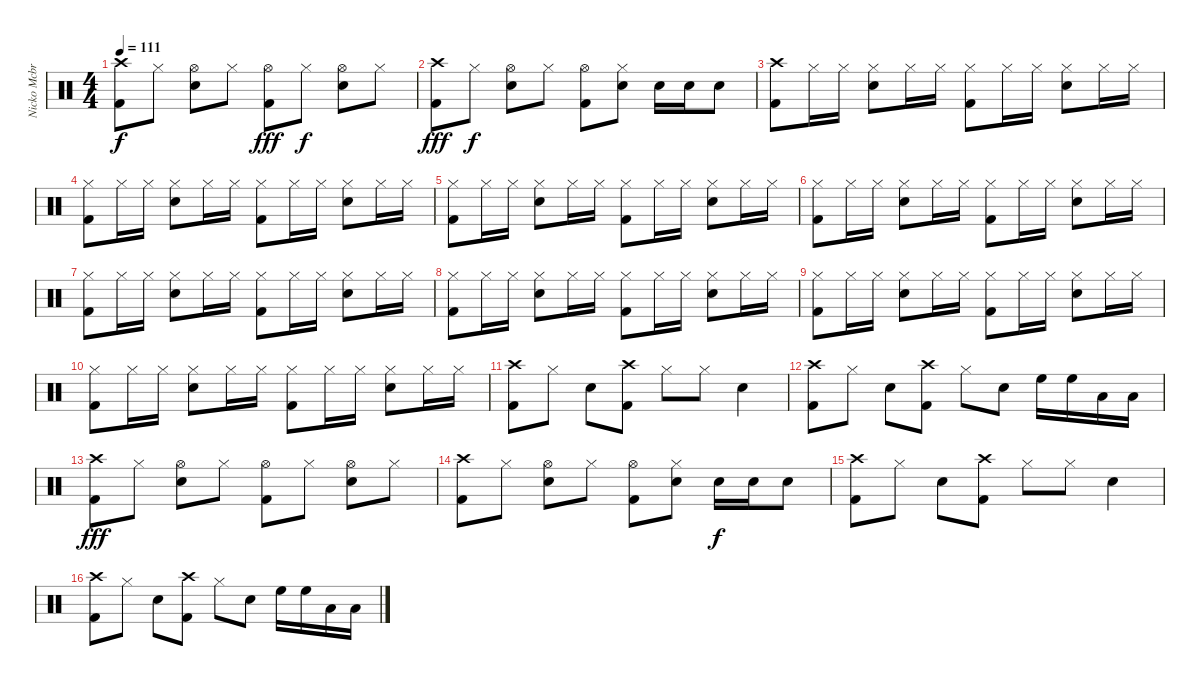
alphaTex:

\track ("Nicko Mcbrain" "Nicko Mcbr") {instrument percussion}
\staff {score}
\articulation defaults
\ts (4 4)
\tempo 111
\clef neutral
\ks c
("Crash high (hit)" "Kick (hit) 2").8{dy f} "Hi-Hat (closed)".8 ("Hi-Hat (open)" "Snare (hit) 2").8 "Hi-Hat (closed)".8 ("Hi-Hat (open)" "Kick (hit) 2").8{dy fff} "Hi-Hat (closed)".8{dy f} ("Hi-Hat (open)" "Snare (hit) 2").8 "Hi-Hat (closed)".8 |
("Crash high (hit)" "Kick (hit) 2").8{dy fff} "Hi-Hat (closed)".8{dy f} ("Hi-Hat (open)" "Snare (hit) 2").8 "Hi-Hat (closed)".8 ("Hi-Hat (open)" "Kick (hit) 2").8 ("Hi-Hat (closed)" "Snare (hit) 2").8 "Snare (hit) 2".16 "Snare (hit) 2".16 "Snare (hit) 2".8 |
("Crash high (hit)" "Kick (hit) 2").8 "Hi-Hat (closed)".16 "Hi-Hat (closed)".16 ("Hi-Hat (closed)" "Snare (hit) 2").8 "Hi-Hat (closed)".16 "Hi-Hat (closed)".16 ("Hi-Hat (closed)" "Kick (hit) 2").8 "Hi-Hat (closed)".16 "Hi-Hat (closed)".16 ("Hi-Hat (closed)" "Snare (hit) 2").8 "Hi-Hat (closed)".16 "Hi-Hat (closed)".16 |
("Hi-Hat (closed)" "Kick (hit) 2").8 "Hi-Hat (closed)".16 "Hi-Hat (closed)".16 ("Hi-Hat (closed)" "Snare (hit) 2").8 "Hi-Hat (closed)".16 "Hi-Hat (closed)".16 ("Hi-Hat (closed)" "Kick (hit) 2").8 "Hi-Hat (closed)".16 "Hi-Hat (closed)".16 ("Hi-Hat (closed)" "Snare (hit) 2").8 "Hi-Hat (closed)".16 "Hi-Hat (closed)".16 |
("Hi-Hat (closed)" "Kick (hit) 2").8 "Hi-Hat (closed)".16 "Hi-Hat (closed)".16 ("Hi-Hat (closed)" "Snare (hit) 2").8 "Hi-Hat (closed)".16 "Hi-Hat (closed)".16 ("Hi-Hat (closed)" "Kick (hit) 2").8 "Hi-Hat (closed)".16 "Hi-Hat (closed)".16 ("Hi-Hat (closed)" "Snare (hit) 2").8 "Hi-Hat (closed)".16 "Hi-Hat (closed)".16 |
("Hi-Hat (closed)" "Kick (hit) 2").8 "Hi-Hat (closed)".16 "Hi-Hat (closed)".16 ("Hi-Hat (closed)" "Snare (hit) 2").8 "Hi-Hat (closed)".16 "Hi-Hat (closed)".16 ("Hi-Hat (closed)" "Kick (hit) 2").8 "Hi-Hat (closed)".16 "Hi-Hat (closed)".16 ("Hi-Hat (closed)" "Snare (hit) 2").8 "Hi-Hat (closed)".16 "Hi-Hat (closed)".16 |
("Hi-Hat (closed)" "Kick (hit) 2").8 "Hi-Hat (closed)".16 "Hi-Hat (closed)".16 ("Hi-Hat (closed)" "Snare (hit) 2").8 "Hi-Hat (closed)".16 "Hi-Hat (closed)".16 ("Hi-Hat (closed)" "Kick (hit) 2").8 "Hi-Hat (closed)".16 "Hi-Hat (closed)".16 ("Hi-Hat (closed)" "Snare (hit) 2").8 "Hi-Hat (closed)".16 "Hi-Hat (closed)".16 |
("Hi-Hat (closed)" "Kick (hit) 2").8 "Hi-Hat (closed)".16 "Hi-Hat (closed)".16 ("Hi-Hat (closed)" "Snare (hit) 2").8 "Hi-Hat (closed)".16 "Hi-Hat (closed)".16 ("Hi-Hat (closed)" "Kick (hit) 2").8 "Hi-Hat (closed)".16 "Hi-Hat (closed)".16 ("Hi-Hat (closed)" "Snare (hit) 2").8 "Hi-Hat (closed)".16 "Hi-Hat (closed)".16 |
("Hi-Hat (closed)" "Kick (hit) 2").8 "Hi-Hat (closed)".16 "Hi-Hat (closed)".16 ("Hi-Hat (closed)" "Snare (hit) 2").8 "Hi-Hat (closed)".16 "Hi-Hat (closed)".16 ("Hi-Hat (closed)" "Kick (hit) 2").8 "Hi-Hat (closed)".16 "Hi-Hat (closed)".16 ("Hi-Hat (closed)" "Snare (hit) 2").8 "Hi-Hat (closed)".16 "Hi-Hat (closed)".16 |
("Hi-Hat (closed)" "Kick (hit) 2").8 "Hi-Hat (closed)".16 "Hi-Hat (closed)".16 ("Hi-Hat (closed)" "Snare (hit) 2").8 "Hi-Hat (closed)".16 "Hi-Hat (closed)".16 ("Hi-Hat (closed)" "Kick (hit) 2").8 "Hi-Hat (closed)".16 "Hi-Hat (closed)".16 ("Hi-Hat (closed)" "Snare (hit) 2").8 "Hi-Hat (closed)".16 "Hi-Hat (closed)".16 |
("Crash high (hit)" "Kick (hit) 2").8 "Hi-Hat (closed)".8 "Snare (hit) 2".8 ("Crash high (hit)" "Kick (hit) 2").8 "Hi-Hat (closed)".8 "Hi-Hat (closed)".8 "Snare (hit) 2".4 |
("Crash high (hit)" "Kick (hit) 2").8 "Hi-Hat (closed)".8 "Snare (hit) 2".8 ("Crash high (hit)" "Kick (hit) 2").8 "Hi-Hat (closed)".8 "Snare (hit) 2".8 "High Floor Tom (hit)".16 "High Floor Tom (hit)".16 "Low Tom (hit)".16 "Low Tom (hit)".16 |
("Crash high (hit)" "Kick (hit) 2").8{dy fff} "Hi-Hat (closed)".8 ("Hi-Hat (open)" "Snare (hit) 2").8 "Hi-Hat (closed)".8 ("Hi-Hat (open)" "Kick (hit) 2").8 "Hi-Hat (closed)".8 ("Hi-Hat (open)" "Snare (hit) 2").8 "Hi-Hat (closed)".8 |
("Crash high (hit)" "Kick (hit) 2").8 "Hi-Hat (closed)".8 ("Hi-Hat (open)" "Snare (hit) 2").8 "Hi-Hat (closed)".8 ("Hi-Hat (open)" "Kick (hit) 2").8 ("Hi-Hat (closed)" "Snare (hit) 2").8 "Snare (hit) 2".16{dy f} "Snare (hit) 2".16 "Snare (hit) 2".8 |
("Crash high (hit)" "Kick (hit) 2").8 "Hi-Hat (closed)".8 "Snare (hit) 2".8 ("Crash high (hit)" "Kick (hit) 2").8 "Hi-Hat (closed)".8 "Hi-Hat (closed)".8 "Snare (hit) 2".4 |
("Crash high (hit)" "Kick (hit) 2").8 "Hi-Hat (closed)".8 "Snare (hit) 2".8 ("Crash high (hit)" "Kick (hit) 2").8 "Hi-Hat (closed)".8 "Snare (hit) 2".8 "High Floor Tom (hit)".16 "High Floor Tom (hit)".16 "Low Tom (hit)".16 "Low Tom (hit)".16
